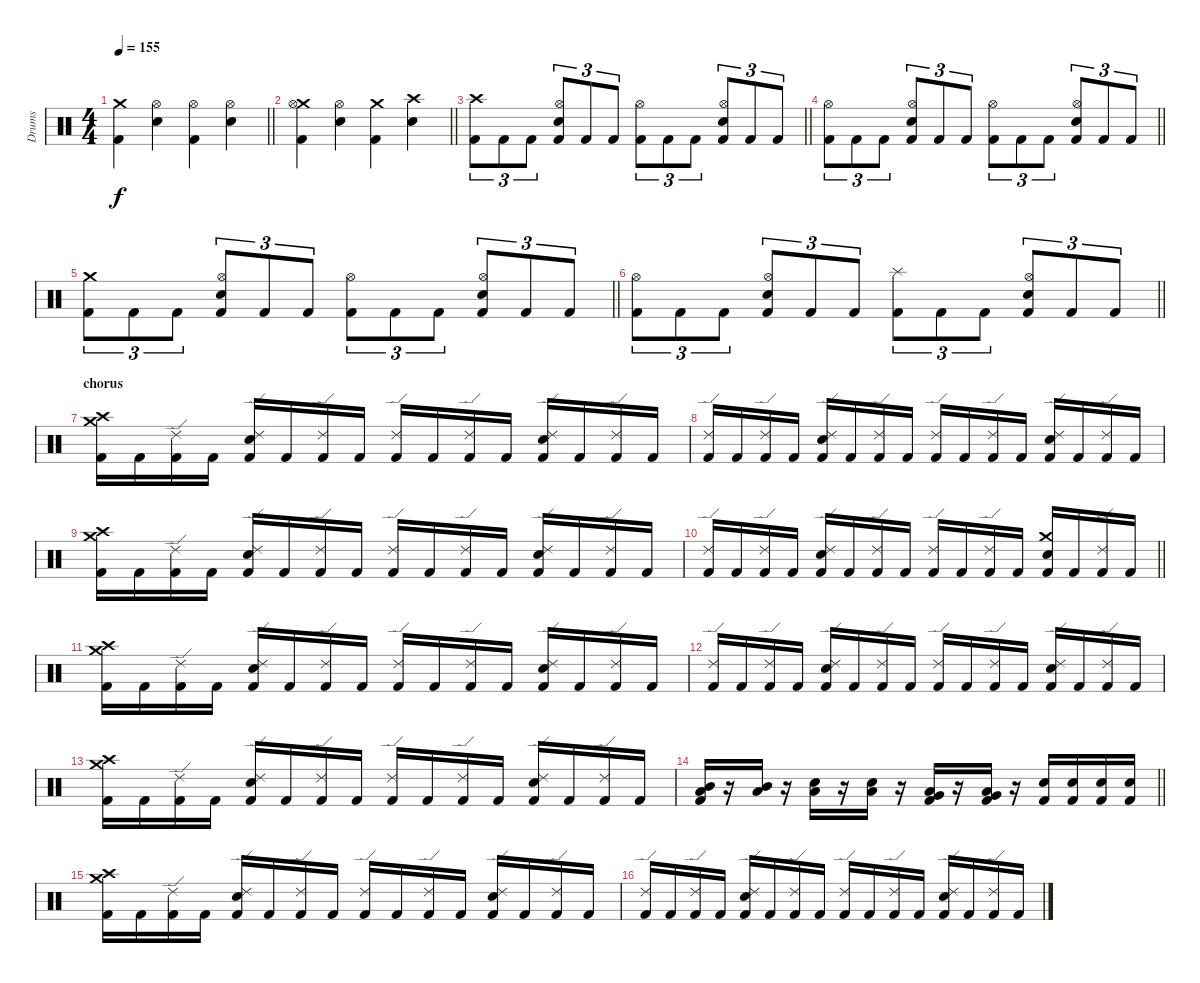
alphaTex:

\track ("Drums" "Drums") {instrument percussion}
\staff {score}
\articulation defaults
\ts (4 4)
\tempo 155
\clef neutral
\barLineRight lightlight
\ks c
("Kick (hit) 2" "Crash medium (hit)").4{dy f} ("Hi-Hat (open)" "Snare (hit) 2").4 ("Kick (hit) 2" "Hi-Hat (open)").4 ("Hi-Hat (open)" "Snare (hit) 2").4 |
\barLineRight lightlight
("Kick (hit) 2" "Crash medium (hit)" "Hi-Hat (open)").4 ("Hi-Hat (open)" "Snare (hit) 2").4 ("Kick (hit) 2" "Crash medium (hit)").4 ("Crash high (hit)" "Snare (hit) 2").4 |
\barLineRight lightlight
("Kick (hit) 2" "Crash high (hit)").8{tu (3 2)} "Kick (hit) 2".8{tu (3 2)} "Kick (hit) 2".8{tu (3 2)} ("Kick (hit) 2" "Hi-Hat (open)" "Snare (hit) 2").8{tu (3 2)} "Kick (hit) 2".8{tu (3 2)} "Kick (hit) 2".8{tu (3 2)} ("Kick (hit) 2" "Hi-Hat (open)").8{tu (3 2)} "Kick (hit) 2".8{tu (3 2)} "Kick (hit) 2".8{tu (3 2)} ("Kick (hit) 2" "Hi-Hat (open)" "Snare (hit) 2").8{tu (3 2)} "Kick (hit) 2".8{tu (3 2)} "Kick (hit) 2".8{tu (3 2)} |
\barLineRight lightlight
("Kick (hit) 2" "Hi-Hat (open)").8{tu (3 2)} "Kick (hit) 2".8{tu (3 2)} "Kick (hit) 2".8{tu (3 2)} ("Kick (hit) 2" "Hi-Hat (open)" "Snare (hit) 2").8{tu (3 2)} "Kick (hit) 2".8{tu (3 2)} "Kick (hit) 2".8{tu (3 2)} ("Kick (hit) 2" "Hi-Hat (open)").8{tu (3 2)} "Kick (hit) 2".8{tu (3 2)} "Kick (hit) 2".8{tu (3 2)} ("Kick (hit) 2" "Hi-Hat (open)" "Snare (hit) 2").8{tu (3 2)} "Kick (hit) 2".8{tu (3 2)} "Kick (hit) 2".8{tu (3 2)} |
\barLineRight lightlight
("Kick (hit) 2" "Crash medium (hit)").8{tu (3 2)} "Kick (hit) 2".8{tu (3 2)} "Kick (hit) 2".8{tu (3 2)} ("Kick (hit) 2" "Hi-Hat (open)" "Snare (hit) 2").8{tu (3 2)} "Kick (hit) 2".8{tu (3 2)} "Kick (hit) 2".8{tu (3 2)} ("Kick (hit) 2" "Hi-Hat (open)").8{tu (3 2)} "Kick (hit) 2".8{tu (3 2)} "Kick (hit) 2".8{tu (3 2)} ("Kick (hit) 2" "Hi-Hat (open)" "Snare (hit) 2").8{tu (3 2)} "Kick (hit) 2".8{tu (3 2)} "Kick (hit) 2".8{tu (3 2)} |
\barLineRight lightlight
("Kick (hit) 2" "Hi-Hat (open)").8{tu (3 2)} "Kick (hit) 2".8{tu (3 2)} "Kick (hit) 2".8{tu (3 2)} ("Kick (hit) 2" "Hi-Hat (open)" "Snare (hit) 2").8{tu (3 2)} "Kick (hit) 2".8{tu (3 2)} "Kick (hit) 2".8{tu (3 2)} ("Kick (hit) 2" "Splash (hit)").8{tu (3 2)} "Kick (hit) 2".8{tu (3 2)} "Kick (hit) 2".8{tu (3 2)} ("Kick (hit) 2" "Hi-Hat (open)" "Snare (hit) 2").8{tu (3 2)} "Kick (hit) 2".8{tu (3 2)} "Kick (hit) 2".8{tu (3 2)} |
\section ("" "chorus")
("Crash high (hit)" "Crash medium (hit)" "Kick (hit) 2").16 "Kick (hit) 2".16 ("Ride (edge) 2" "Kick (hit) 2").16 "Kick (hit) 2".16 ("Ride (edge) 2" "Electric Snare (hit)" "Kick (hit) 2").16 "Kick (hit) 2".16 ("Ride (edge) 2" "Kick (hit) 2").16 "Kick (hit) 2".16 ("Ride (edge) 2" "Kick (hit) 2").16 "Kick (hit) 2".16 ("Ride (edge) 2" "Kick (hit) 2").16 "Kick (hit) 2".16 ("Ride (edge) 2" "Electric Snare (hit)" "Kick (hit) 2").16 "Kick (hit) 2".16 ("Ride (edge) 2" "Kick (hit) 2").16 "Kick (hit) 2".16 |
("Ride (edge) 2" "Kick (hit) 2").16 "Kick (hit) 2".16 ("Ride (edge) 2" "Kick (hit) 2").16 "Kick (hit) 2".16 ("Ride (edge) 2" "Electric Snare (hit)" "Kick (hit) 2").16 "Kick (hit) 2".16 ("Ride (edge) 2" "Kick (hit) 2").16 "Kick (hit) 2".16 ("Ride (edge) 2" "Kick (hit) 2").16 "Kick (hit) 2".16 ("Ride (edge) 2" "Kick (hit) 2").16 "Kick (hit) 2".16 ("Ride (edge) 2" "Electric Snare (hit)" "Kick (hit) 2").16 "Kick (hit) 2".16 ("Ride (edge) 2" "Kick (hit) 2").16 "Kick (hit) 2".16 |
("Crash high (hit)" "Crash medium (hit)" "Kick (hit) 2").16 "Kick (hit) 2".16 ("Ride (edge) 2" "Kick (hit) 2").16 "Kick (hit) 2".16 ("Ride (edge) 2" "Electric Snare (hit)" "Kick (hit) 2").16 "Kick (hit) 2".16 ("Ride (edge) 2" "Kick (hit) 2").16 "Kick (hit) 2".16 ("Ride (edge) 2" "Kick (hit) 2").16 "Kick (hit) 2".16 ("Ride (edge) 2" "Kick (hit) 2").16 "Kick (hit) 2".16 ("Ride (edge) 2" "Electric Snare (hit)" "Kick (hit) 2").16 "Kick (hit) 2".16 ("Ride (edge) 2" "Kick (hit) 2").16 "Kick (hit) 2".16 |
\barLineRight lightlight
("Ride (edge) 2" "Kick (hit) 2").16 "Kick (hit) 2".16 ("Ride (edge) 2" "Kick (hit) 2").16 "Kick (hit) 2".16 ("Ride (edge) 2" "Electric Snare (hit)" "Kick (hit) 2").16 "Kick (hit) 2".16 ("Ride (edge) 2" "Kick (hit) 2").16 "Kick (hit) 2".16 ("Ride (edge) 2" "Kick (hit) 2").16 "Kick (hit) 2".16 ("Ride (edge) 2" "Kick (hit) 2").16 "Kick (hit) 2".16 ("Crash medium (hit)" "Electric Snare (hit)" "Kick (hit) 2").16 "Kick (hit) 2".16 ("Ride (edge) 2" "Kick (hit) 2").16 "Kick (hit) 2".16 |
("Crash high (hit)" "Crash medium (hit)" "Kick (hit) 2").16 "Kick (hit) 2".16 ("Ride (edge) 2" "Kick (hit) 2").16 "Kick (hit) 2".16 ("Ride (edge) 2" "Electric Snare (hit)" "Kick (hit) 2").16 "Kick (hit) 2".16 ("Ride (edge) 2" "Kick (hit) 2").16 "Kick (hit) 2".16 ("Ride (edge) 2" "Kick (hit) 2").16 "Kick (hit) 2".16 ("Ride (edge) 2" "Kick (hit) 2").16 "Kick (hit) 2".16 ("Ride (edge) 2" "Electric Snare (hit)" "Kick (hit) 2").16 "Kick (hit) 2".16 ("Ride (edge) 2" "Kick (hit) 2").16 "Kick (hit) 2".16 |
("Ride (edge) 2" "Kick (hit) 2").16 "Kick (hit) 2".16 ("Ride (edge) 2" "Kick (hit) 2").16 "Kick (hit) 2".16 ("Ride (edge) 2" "Electric Snare (hit)" "Kick (hit) 2").16 "Kick (hit) 2".16 ("Ride (edge) 2" "Kick (hit) 2").16 "Kick (hit) 2".16 ("Ride (edge) 2" "Kick (hit) 2").16 "Kick (hit) 2".16 ("Ride (edge) 2" "Kick (hit) 2").16 "Kick (hit) 2".16 ("Ride (edge) 2" "Electric Snare (hit)" "Kick (hit) 2").16 "Kick (hit) 2".16 ("Ride (edge) 2" "Kick (hit) 2").16 "Kick (hit) 2".16 |
("Crash high (hit)" "Crash medium (hit)" "Kick (hit) 2").16 "Kick (hit) 2".16 ("Ride (edge) 2" "Kick (hit) 2").16 "Kick (hit) 2".16 ("Ride (edge) 2" "Electric Snare (hit)" "Kick (hit) 2").16 "Kick (hit) 2".16 ("Ride (edge) 2" "Kick (hit) 2").16 "Kick (hit) 2".16 ("Ride (edge) 2" "Kick (hit) 2").16 "Kick (hit) 2".16 ("Ride (edge) 2" "Kick (hit) 2").16 "Kick (hit) 2".16 ("Ride (edge) 2" "Electric Snare (hit)" "Kick (hit) 2").16 "Kick (hit) 2".16 ("Ride (edge) 2" "Kick (hit) 2").16 "Kick (hit) 2".16 |
\barLineRight lightlight
("Mid Tom (hit)" "Low Tom (hit)" "Kick (hit) 2").16 r.16 ("Mid Tom (hit)" "Low Tom (hit)").16 r.16 ("Low Tom (hit)" "Electric Snare (hit)").16 r.16 ("Low Tom (hit)" "Electric Snare (hit)").16 r.16 ("Low Tom (hit)" "Very Low Tom (hit)" "Kick (hit) 2").16 r.16 ("Low Tom (hit)" "Very Low Tom (hit)" "Kick (hit) 2").16 r.16 ("Electric Snare (hit)" "Kick (hit) 2").16 ("Electric Snare (hit)" "Kick (hit) 2").16 ("Electric Snare (hit)" "Kick (hit) 2").16 ("Electric Snare (hit)" "Kick (hit) 2").16 |
("Crash high (hit)" "Crash medium (hit)" "Kick (hit) 2").16 "Kick (hit) 2".16 ("Ride (edge) 2" "Kick (hit) 2").16 "Kick (hit) 2".16 ("Ride (edge) 2" "Electric Snare (hit)" "Kick (hit) 2").16 "Kick (hit) 2".16 ("Ride (edge) 2" "Kick (hit) 2").16 "Kick (hit) 2".16 ("Ride (edge) 2" "Kick (hit) 2").16 "Kick (hit) 2".16 ("Ride (edge) 2" "Kick (hit) 2").16 "Kick (hit) 2".16 ("Ride (edge) 2" "Electric Snare (hit)" "Kick (hit) 2").16 "Kick (hit) 2".16 ("Ride (edge) 2" "Kick (hit) 2").16 "Kick (hit) 2".16 |
("Ride (edge) 2" "Kick (hit) 2").16 "Kick (hit) 2".16 ("Ride (edge) 2" "Kick (hit) 2").16 "Kick (hit) 2".16 ("Ride (edge) 2" "Electric Snare (hit)" "Kick (hit) 2").16 "Kick (hit) 2".16 ("Ride (edge) 2" "Kick (hit) 2").16 "Kick (hit) 2".16 ("Ride (edge) 2" "Kick (hit) 2").16 "Kick (hit) 2".16 ("Ride (edge) 2" "Kick (hit) 2").16 "Kick (hit) 2".16 ("Ride (edge) 2" "Electric Snare (hit)" "Kick (hit) 2").16 "Kick (hit) 2".16 ("Ride (edge) 2" "Kick (hit) 2").16 "Kick (hit) 2".16
